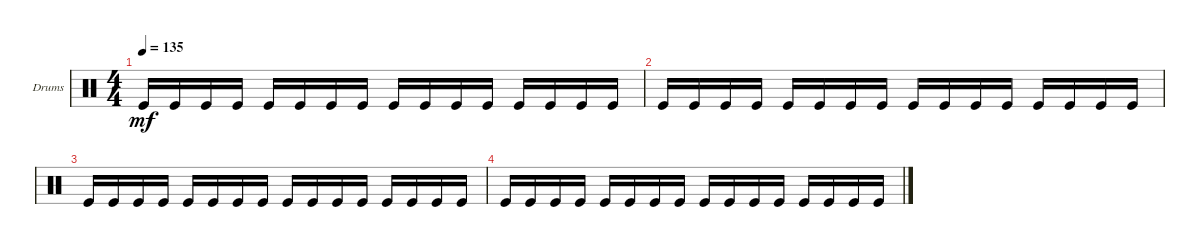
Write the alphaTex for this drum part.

\defaultSystemsLayout 4
\bracketExtendMode groupsimilarinstruments
\firstSystemTrackNameOrientation horizontal
\otherSystemsTrackNameOrientation horizontal
\track ("Background-Bass" "Drums") {instrument percussion}
\staff {score}
\articulation defaults
\ts (4 4)
\tempo 135
\clef neutral
\scale
0.333333
\ks c "Kick (hit)".16{dy mf} "Kick (hit)".16 "Kick (hit)".16 "Kick (hit)".16 "Kick (hit)".16 "Kick (hit)".16 "Kick (hit)".16 "Kick (hit)".16 "Kick (hit)".16 "Kick (hit)".16 "Kick (hit)".16 "Kick (hit)".16 "Kick (hit)".16 "Kick (hit)".16 "Kick (hit)".16 "Kick (hit)".16
|
\scale
0.333333 "Kick (hit)".16 "Kick (hit)".16 "Kick (hit)".16 "Kick (hit)".16 "Kick (hit)".16 "Kick (hit)".16 "Kick (hit)".16 "Kick (hit)".16 "Kick (hit)".16 "Kick (hit)".16 "Kick (hit)".16 "Kick (hit)".16 "Kick (hit)".16 "Kick (hit)".16 "Kick (hit)".16 "Kick (hit)".16 |
"Kick (hit)".16 "Kick (hit)".16 "Kick (hit)".16 "Kick (hit)".16 "Kick (hit)".16 "Kick (hit)".16 "Kick (hit)".16 "Kick (hit)".16 "Kick (hit)".16 "Kick (hit)".16 "Kick (hit)".16 "Kick (hit)".16 "Kick (hit)".16 "Kick (hit)".16 "Kick (hit)".16 "Kick (hit)".16 |
"Kick (hit)".16 "Kick (hit)".16 "Kick (hit)".16 "Kick (hit)".16 "Kick (hit)".16 "Kick (hit)".16 "Kick (hit)".16 "Kick (hit)".16 "Kick (hit)".16 "Kick (hit)".16 "Kick (hit)".16 "Kick (hit)".16 "Kick (hit)".16 "Kick (hit)".16 "Kick (hit)".16 "Kick (hit)".16
